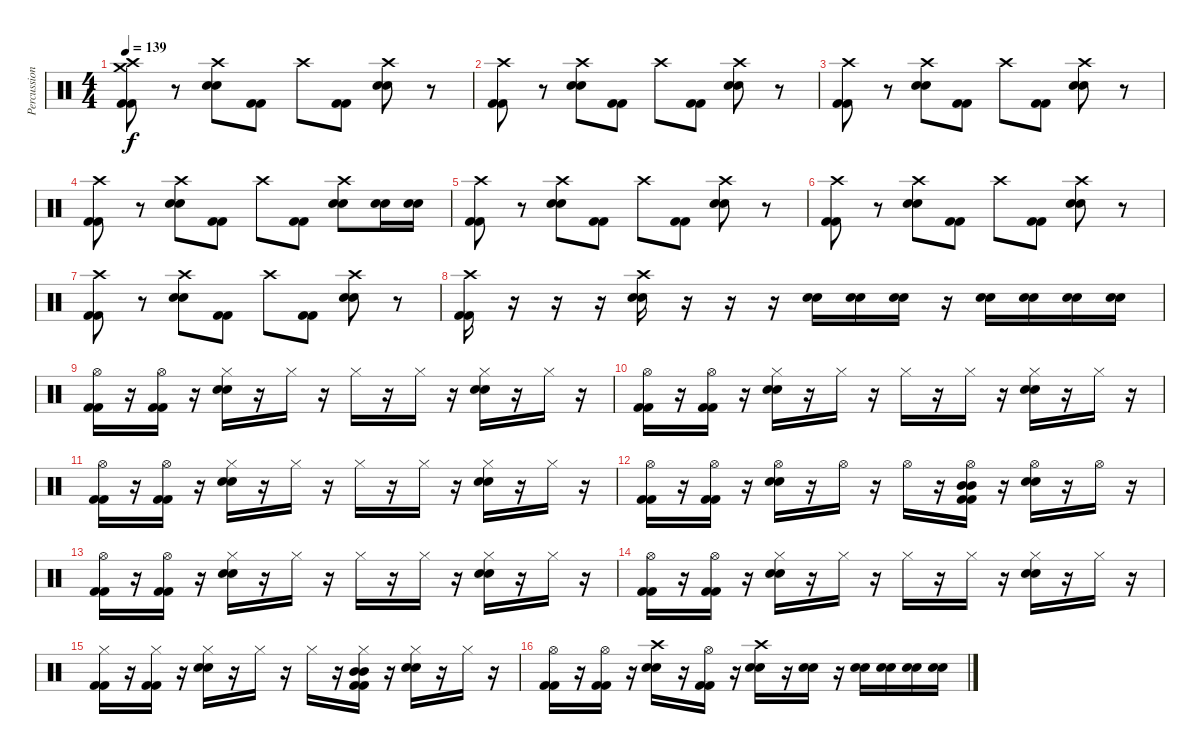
\track ("Percussioni" "Percussion") {instrument percussion}
\staff {score}
\articulation defaults
\ts (4 4)
\tempo 139
\clef neutral
\ks c
("Crash medium (hit)" "Crash high (hit)" "Kick (hit) 2" "Kick (hit) 2").8{dy f} r.8 ("Crash high (hit)" "Electric Snare (hit)" "Snare (hit) 2").8 ("Kick (hit) 2" "Kick (hit) 2").8 "Crash high (hit)".8 ("Kick (hit) 2" "Kick (hit) 2").8 ("Crash high (hit)" "Electric Snare (hit)" "Snare (hit) 2").8 r.8 |
("Crash high (hit)" "Kick (hit) 2" "Kick (hit) 2").8 r.8 ("Crash high (hit)" "Electric Snare (hit)" "Snare (hit) 2").8 ("Kick (hit) 2" "Kick (hit) 2").8 "Crash high (hit)".8 ("Kick (hit) 2" "Kick (hit) 2").8 ("Crash high (hit)" "Electric Snare (hit)" "Snare (hit) 2").8 r.8 |
("Crash high (hit)" "Kick (hit) 2" "Kick (hit) 2").8 r.8 ("Crash high (hit)" "Electric Snare (hit)" "Snare (hit) 2").8 ("Kick (hit) 2" "Kick (hit) 2").8 "Crash high (hit)".8 ("Kick (hit) 2" "Kick (hit) 2").8 ("Crash high (hit)" "Electric Snare (hit)" "Snare (hit) 2").8 r.8 |
("Crash high (hit)" "Kick (hit) 2" "Kick (hit) 2").8 r.8 ("Crash high (hit)" "Electric Snare (hit)" "Snare (hit) 2").8 ("Kick (hit) 2" "Kick (hit) 2").8 "Crash high (hit)".8 ("Kick (hit) 2" "Kick (hit) 2").8 ("Crash high (hit)" "Electric Snare (hit)" "Snare (hit) 2").8 ("Snare (hit) 2" "Electric Snare (hit)").16 ("Snare (hit) 2" "Electric Snare (hit)").16 |
("Crash high (hit)" "Kick (hit) 2" "Kick (hit) 2").8 r.8 ("Crash high (hit)" "Electric Snare (hit)" "Snare (hit) 2").8 ("Kick (hit) 2" "Kick (hit) 2").8 "Crash high (hit)".8 ("Kick (hit) 2" "Kick (hit) 2").8 ("Crash high (hit)" "Electric Snare (hit)" "Snare (hit) 2").8 r.8 |
("Crash high (hit)" "Kick (hit) 2" "Kick (hit) 2").8 r.8 ("Crash high (hit)" "Electric Snare (hit)" "Snare (hit) 2").8 ("Kick (hit) 2" "Kick (hit) 2").8 "Crash high (hit)".8 ("Kick (hit) 2" "Kick (hit) 2").8 ("Crash high (hit)" "Electric Snare (hit)" "Snare (hit) 2").8 r.8 |
("Crash high (hit)" "Kick (hit) 2" "Kick (hit) 2").8 r.8 ("Crash high (hit)" "Electric Snare (hit)" "Snare (hit) 2").8 ("Kick (hit) 2" "Kick (hit) 2").8 "Crash high (hit)".8 ("Kick (hit) 2" "Kick (hit) 2").8 ("Crash high (hit)" "Electric Snare (hit)" "Snare (hit) 2").8 r.8 |
("Crash high (hit)" "Kick (hit) 2" "Kick (hit) 2").16 r.16 r.16 r.16 ("Crash high (hit)" "Snare (hit) 2" "Electric Snare (hit)").16 r.16 r.16 r.16 ("Snare (hit) 2" "Electric Snare (hit)").16 ("Snare (hit) 2" "Electric Snare (hit)").16 ("Snare (hit) 2" "Electric Snare (hit)").16 r.16 ("Snare (hit) 2" "Electric Snare (hit)").16 ("Snare (hit) 2" "Electric Snare (hit)").16 ("Snare (hit) 2" "Electric Snare (hit)").16 ("Snare (hit) 2" "Electric Snare (hit)").16 |
("Hi-Hat (open)" "Kick (hit) 2" "Kick (hit) 2").16 r.16 ("Hi-Hat (open)" "Kick (hit) 2" "Kick (hit) 2").16 r.16 ("Hi-Hat (closed)" "Snare (hit) 2" "Electric Snare (hit)").16 r.16 "Hi-Hat (closed)".16 r.16 "Hi-Hat (closed)".16 r.16 "Hi-Hat (closed)".16 r.16 ("Hi-Hat (closed)" "Snare (hit) 2" "Electric Snare (hit)").16 r.16 "Hi-Hat (closed)".16 r.16 |
("Hi-Hat (open)" "Kick (hit) 2" "Kick (hit) 2").16 r.16 ("Hi-Hat (open)" "Kick (hit) 2" "Kick (hit) 2").16 r.16 ("Hi-Hat (closed)" "Snare (hit) 2" "Electric Snare (hit)").16 r.16 "Hi-Hat (closed)".16 r.16 "Hi-Hat (closed)".16 r.16 "Hi-Hat (closed)".16 r.16 ("Hi-Hat (closed)" "Snare (hit) 2" "Electric Snare (hit)").16 r.16 "Hi-Hat (closed)".16 r.16 |
("Hi-Hat (open)" "Kick (hit) 2" "Kick (hit) 2").16 r.16 ("Hi-Hat (open)" "Kick (hit) 2" "Kick (hit) 2").16 r.16 ("Hi-Hat (closed)" "Snare (hit) 2" "Electric Snare (hit)").16 r.16 "Hi-Hat (closed)".16 r.16 "Hi-Hat (closed)".16 r.16 "Hi-Hat (closed)".16 r.16 ("Hi-Hat (closed)" "Snare (hit) 2" "Electric Snare (hit)").16 r.16 "Hi-Hat (closed)".16 r.16 |
("Hi-Hat (open)" "Kick (hit) 2" "Kick (hit) 2").16 r.16 ("Hi-Hat (open)" "Kick (hit) 2" "Kick (hit) 2").16 r.16 ("Hi-Hat (open)" "Snare (hit) 2" "Electric Snare (hit)").16 r.16 "Hi-Hat (open)".16 r.16 "Hi-Hat (open)".16 r.16 ("Hi-Hat (open)" "Mid Tom (hit)" "Mid Tom (hit)" "Kick (hit) 2" "Kick (hit) 2").16 r.16 ("Hi-Hat (open)" "Snare (hit) 2" "Electric Snare (hit)").16 r.16 "Hi-Hat (open)".16 r.16 |
("Hi-Hat (open)" "Kick (hit) 2" "Kick (hit) 2").16 r.16 ("Hi-Hat (open)" "Kick (hit) 2" "Kick (hit) 2").16 r.16 ("Hi-Hat (closed)" "Snare (hit) 2" "Electric Snare (hit)").16 r.16 "Hi-Hat (closed)".16 r.16 "Hi-Hat (closed)".16 r.16 "Hi-Hat (closed)".16 r.16 ("Hi-Hat (closed)" "Snare (hit) 2" "Electric Snare (hit)").16 r.16 "Hi-Hat (closed)".16 r.16 |
("Hi-Hat (open)" "Kick (hit) 2" "Kick (hit) 2").16 r.16 ("Hi-Hat (open)" "Kick (hit) 2" "Kick (hit) 2").16 r.16 ("Hi-Hat (closed)" "Snare (hit) 2" "Electric Snare (hit)").16 r.16 "Hi-Hat (closed)".16 r.16 "Hi-Hat (closed)".16 r.16 "Hi-Hat (closed)".16 r.16 ("Hi-Hat (closed)" "Snare (hit) 2" "Electric Snare (hit)").16 r.16 "Hi-Hat (closed)".16 r.16 |
("Hi-Hat (closed)" "Kick (hit) 2" "Kick (hit) 2").16 r.16 ("Hi-Hat (closed)" "Kick (hit) 2" "Kick (hit) 2").16 r.16 ("Hi-Hat (closed)" "Snare (hit) 2" "Electric Snare (hit)").16 r.16 "Hi-Hat (closed)".16 r.16 "Hi-Hat (closed)".16 r.16 ("Hi-Hat (closed)" "Mid Tom (hit)" "Mid Tom (hit)" "Kick (hit) 2" "Kick (hit) 2").16 r.16 ("Hi-Hat (closed)" "Snare (hit) 2" "Electric Snare (hit)").16 r.16 "Hi-Hat (closed)".16 r.16 |
("Hi-Hat (open)" "Kick (hit) 2" "Kick (hit) 2").16 r.16 ("Hi-Hat (open)" "Kick (hit) 2" "Kick (hit) 2").16 r.16 ("Crash high (hit)" "Snare (hit) 2" "Electric Snare (hit)").16 r.16 ("Hi-Hat (open)" "Kick (hit) 2" "Kick (hit) 2").16 r.16 ("Crash high (hit)" "Snare (hit) 2" "Electric Snare (hit)").16 r.16 ("Electric Snare (hit)" "Snare (hit) 2").16 r.16 ("Electric Snare (hit)" "Snare (hit) 2").16 ("Electric Snare (hit)" "Snare (hit) 2").16 ("Electric Snare (hit)" "Snare (hit) 2").16 ("Electric Snare (hit)" "Snare (hit) 2").16
